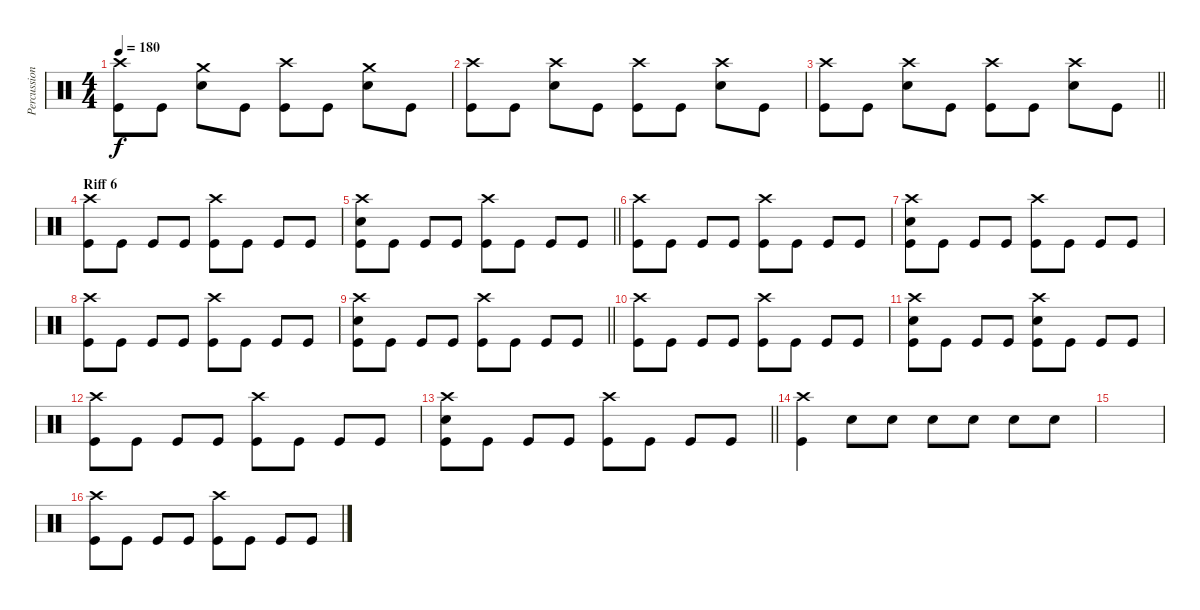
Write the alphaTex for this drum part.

\track ("Percussion" "Percussion") {instrument percussion}
\staff {score}
\articulation defaults
\ts (4 4)
\tempo 180
\clef neutral
\ks c
("Crash high (hit)" "Kick (hit)").8{dy f} "Kick (hit)".8 ("Snare (hit) 2" "Crash medium (hit)").8 "Kick (hit)".8 ("Crash high (hit)" "Kick (hit)").8 "Kick (hit)".8 ("Snare (hit) 2" "Crash medium (hit)").8 "Kick (hit)".8 |
("Crash high (hit)" "Kick (hit)").8 "Kick (hit)".8 ("Crash high (hit)" "Snare (hit) 2").8 "Kick (hit)".8 ("Crash high (hit)" "Kick (hit)").8 "Kick (hit)".8 ("Crash high (hit)" "Snare (hit) 2").8 "Kick (hit)".8 |
\barLineRight lightlight
("Crash high (hit)" "Kick (hit)").8 "Kick (hit)".8 ("Crash high (hit)" "Snare (hit) 2").8 "Kick (hit)".8 ("Crash high (hit)" "Kick (hit)").8 "Kick (hit)".8 ("Crash high (hit)" "Snare (hit) 2").8 "Kick (hit)".8 |
\section ("" "Riff 6")
("Crash high (hit)" "Kick (hit)").8 "Kick (hit)".8 "Kick (hit)".8 "Kick (hit)".8 ("Crash high (hit)" "Kick (hit)").8 "Kick (hit)".8 "Kick (hit)".8 "Kick (hit)".8 |
\barLineRight lightlight
("Snare (hit) 2" "Crash high (hit)" "Kick (hit)").8 "Kick (hit)".8 "Kick (hit)".8 "Kick (hit)".8 ("Crash high (hit)" "Kick (hit)").8 "Kick (hit)".8 "Kick (hit)".8 "Kick (hit)".8 |
("Crash high (hit)" "Kick (hit)").8 "Kick (hit)".8 "Kick (hit)".8 "Kick (hit)".8 ("Crash high (hit)" "Kick (hit)").8 "Kick (hit)".8 "Kick (hit)".8 "Kick (hit)".8 |
("Snare (hit) 2" "Crash high (hit)" "Kick (hit)").8 "Kick (hit)".8 "Kick (hit)".8 "Kick (hit)".8 ("Crash high (hit)" "Kick (hit)").8 "Kick (hit)".8 "Kick (hit)".8 "Kick (hit)".8 |
("Crash high (hit)" "Kick (hit)").8 "Kick (hit)".8 "Kick (hit)".8 "Kick (hit)".8 ("Crash high (hit)" "Kick (hit)").8 "Kick (hit)".8 "Kick (hit)".8 "Kick (hit)".8 |
\barLineRight lightlight
("Snare (hit) 2" "Crash high (hit)" "Kick (hit)").8 "Kick (hit)".8 "Kick (hit)".8 "Kick (hit)".8 ("Crash high (hit)" "Kick (hit)").8 "Kick (hit)".8 "Kick (hit)".8 "Kick (hit)".8 |
("Crash high (hit)" "Kick (hit)").8 "Kick (hit)".8 "Kick (hit)".8 "Kick (hit)".8 ("Crash high (hit)" "Kick (hit)").8 "Kick (hit)".8 "Kick (hit)".8 "Kick (hit)".8 |
("Snare (hit) 2" "Crash high (hit)" "Kick (hit)").8 "Kick (hit)".8 "Kick (hit)".8 "Kick (hit)".8 ("Snare (hit) 2" "Crash high (hit)" "Kick (hit)").8 "Kick (hit)".8 "Kick (hit)".8 "Kick (hit)".8 |
("Crash high (hit)" "Kick (hit)").8 "Kick (hit)".8 "Kick (hit)".8 "Kick (hit)".8 ("Crash high (hit)" "Kick (hit)").8 "Kick (hit)".8 "Kick (hit)".8 "Kick (hit)".8 |
\barLineRight lightlight
("Snare (hit) 2" "Crash high (hit)" "Kick (hit)").8 "Kick (hit)".8 "Kick (hit)".8 "Kick (hit)".8 ("Crash high (hit)" "Kick (hit)").8 "Kick (hit)".8 "Kick (hit)".8 "Kick (hit)".8 |
("Crash high (hit)" "Kick (hit)").4 "Snare (hit) 2".8 "Snare (hit) 2".8 "Snare (hit) 2".8 "Snare (hit) 2".8 "Snare (hit) 2".8 "Snare (hit) 2".8 |
|
("Crash high (hit)" "Kick (hit)").8 "Kick (hit)".8 "Kick (hit)".8 "Kick (hit)".8 ("Crash high (hit)" "Kick (hit)").8 "Kick (hit)".8 "Kick (hit)".8 "Kick (hit)".8
